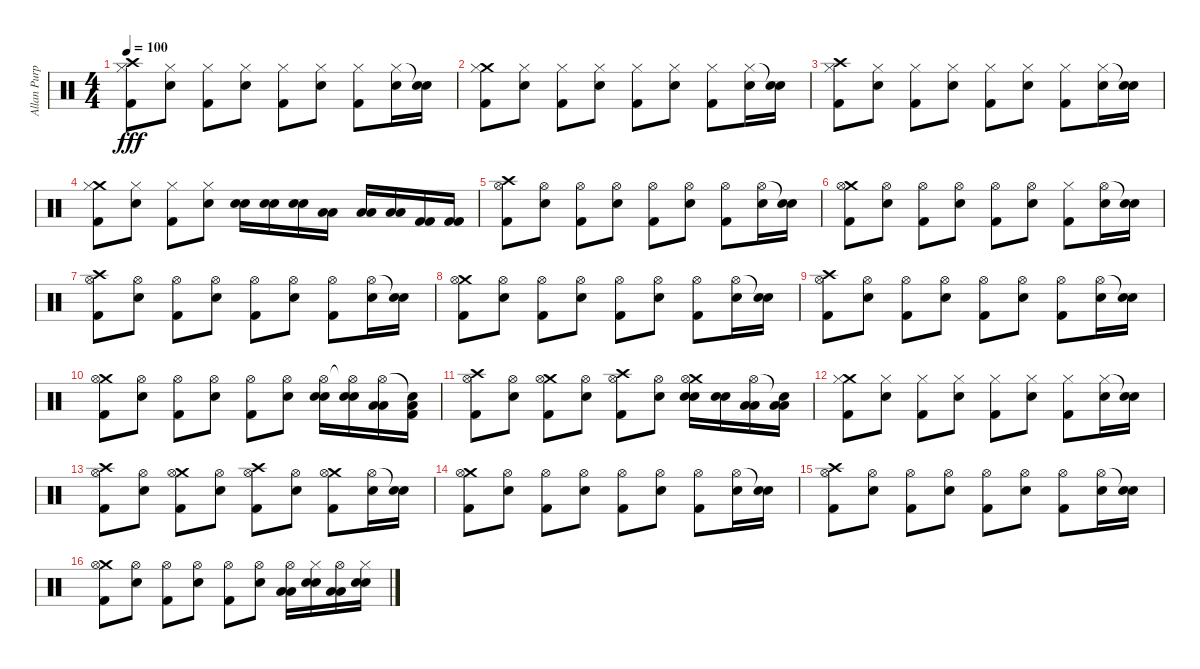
\track ("Allan Purple" "Allan Purp") {instrument percussion}
\staff {score}
\articulation defaults
\ts (4 4)
\tempo 100
\clef neutral
\ks c
("Crash high (hit)" "Hi-Hat (closed)" "Kick (hit) 2").8{dy fff} ("Hi-Hat (closed)" "Electric Snare (hit)").8 ("Hi-Hat (closed)" "Kick (hit) 2").8 ("Hi-Hat (closed)" "Electric Snare (hit)").8 ("Hi-Hat (closed)" "Kick (hit) 2").8 ("Hi-Hat (closed)" "Electric Snare (hit)").8 ("Hi-Hat (closed)" "Kick (hit) 2").8 ("Hi-Hat (closed)" "Electric Snare (hit)").16 ("Snare (hit)"{t} "Electric Snare (hit)").16 |
("Crash medium (hit)" "Hi-Hat (closed)" "Kick (hit) 2").8 ("Hi-Hat (closed)" "Electric Snare (hit)").8 ("Hi-Hat (closed)" "Kick (hit) 2").8 ("Hi-Hat (closed)" "Electric Snare (hit)").8 ("Hi-Hat (closed)" "Kick (hit) 2").8 ("Hi-Hat (closed)" "Electric Snare (hit)").8 ("Hi-Hat (closed)" "Kick (hit) 2").8 ("Hi-Hat (closed)" "Electric Snare (hit)").16 ("Snare (hit)"{t} "Electric Snare (hit)").16 |
("Crash high (hit)" "Hi-Hat (closed)" "Kick (hit) 2").8 ("Hi-Hat (closed)" "Electric Snare (hit)").8 ("Hi-Hat (closed)" "Kick (hit) 2").8 ("Hi-Hat (closed)" "Electric Snare (hit)").8 ("Hi-Hat (closed)" "Kick (hit) 2").8 ("Hi-Hat (closed)" "Electric Snare (hit)").8 ("Hi-Hat (closed)" "Kick (hit) 2").8 ("Hi-Hat (closed)" "Electric Snare (hit)").16 ("Snare (hit)"{t} "Electric Snare (hit)").16 |
("Crash medium (hit)" "Hi-Hat (closed)" "Kick (hit) 2").8 ("Hi-Hat (closed)" "Electric Snare (hit)").8 ("Hi-Hat (closed)" "Kick (hit) 2").8 ("Hi-Hat (closed)" "Electric Snare (hit)").8 ("Electric Snare (hit)" "Electric Snare (hit)").16 ("Electric Snare (hit)" "Electric Snare (hit)").16 ("Electric Snare (hit)" "Electric Snare (hit)").16 ("Low Tom (hit)" "Low Tom (hit)").16 ("Low Tom (hit)" "Low Tom (hit)").16 ("Low Tom (hit)" "Low Tom (hit)").16 ("Kick (hit) 2" "Kick (hit) 2").16 ("Kick (hit) 2" "Kick (hit) 2").16 |
("Crash high (hit)" "Hi-Hat (open)" "Kick (hit) 2").8 ("Hi-Hat (open)" "Electric Snare (hit)").8 ("Hi-Hat (open)" "Kick (hit) 2").8 ("Hi-Hat (open)" "Electric Snare (hit)").8 ("Hi-Hat (open)" "Kick (hit) 2").8 ("Hi-Hat (open)" "Electric Snare (hit)").8 ("Hi-Hat (open)" "Kick (hit) 2").8 ("Hi-Hat (open)" "Electric Snare (hit)").16 ("Snare (hit)"{t} "Electric Snare (hit)").16 |
("Crash medium (hit)" "Hi-Hat (open)" "Kick (hit) 2").8 ("Hi-Hat (open)" "Electric Snare (hit)").8 ("Hi-Hat (open)" "Kick (hit) 2").8 ("Hi-Hat (open)" "Electric Snare (hit)").8 ("Hi-Hat (open)" "Kick (hit) 2").8 ("Hi-Hat (open)" "Electric Snare (hit)").8 ("Hi-Hat (closed)" "Kick (hit) 2").8 ("Hi-Hat (open)" "Electric Snare (hit)").16 ("Snare (hit)"{t} "Electric Snare (hit)").16 |
("Crash high (hit)" "Hi-Hat (open)" "Kick (hit) 2").8 ("Hi-Hat (open)" "Electric Snare (hit)").8 ("Hi-Hat (open)" "Kick (hit) 2").8 ("Hi-Hat (open)" "Electric Snare (hit)").8 ("Hi-Hat (open)" "Kick (hit) 2").8 ("Hi-Hat (open)" "Electric Snare (hit)").8 ("Hi-Hat (open)" "Kick (hit) 2").8 ("Hi-Hat (open)" "Electric Snare (hit)").16 ("Snare (hit)"{t} "Electric Snare (hit)").16 |
("Crash medium (hit)" "Hi-Hat (open)" "Kick (hit) 2").8 ("Hi-Hat (open)" "Electric Snare (hit)").8 ("Hi-Hat (open)" "Kick (hit) 2").8 ("Hi-Hat (open)" "Electric Snare (hit)").8 ("Hi-Hat (open)" "Kick (hit) 2").8 ("Hi-Hat (open)" "Electric Snare (hit)").8 ("Hi-Hat (open)" "Kick (hit) 2").8 ("Hi-Hat (open)" "Electric Snare (hit)").16 ("Snare (hit)"{t} "Electric Snare (hit)").16 |
("Crash high (hit)" "Hi-Hat (open)" "Kick (hit) 2").8 ("Hi-Hat (open)" "Electric Snare (hit)").8 ("Hi-Hat (open)" "Kick (hit) 2").8 ("Hi-Hat (open)" "Electric Snare (hit)").8 ("Hi-Hat (open)" "Kick (hit) 2").8 ("Hi-Hat (open)" "Electric Snare (hit)").8 ("Hi-Hat (open)" "Kick (hit) 2").8 ("Hi-Hat (open)" "Electric Snare (hit)").16 ("Snare (hit)"{t} "Electric Snare (hit)").16 |
("Crash medium (hit)" "Hi-Hat (open)" "Kick (hit) 2").8 ("Hi-Hat (open)" "Electric Snare (hit)").8 ("Hi-Hat (open)" "Kick (hit) 2").8 ("Hi-Hat (open)" "Electric Snare (hit)").8 ("Hi-Hat (open)" "Kick (hit) 2").8 ("Hi-Hat (open)" "Electric Snare (hit)").8 ("Hi-Hat (open)" "Electric Snare (hit)" "Electric Snare (hit)").16 ("Hi-Hat (open)"{t} "Electric Snare (hit)" "Electric Snare (hit)").16 ("Hi-Hat (open)" "Low Tom (hit)" "Low Tom (hit)").16 ("Snare (hit)"{t} "Low Tom (hit)" "Kick (hit) 2").16 |
("Crash high (hit)" "Hi-Hat (open)" "Kick (hit) 2").8 ("Hi-Hat (open)" "Electric Snare (hit)").8 ("Crash medium (hit)" "Hi-Hat (open)" "Kick (hit) 2").8 ("Hi-Hat (open)" "Electric Snare (hit)").8 ("Crash high (hit)" "Hi-Hat (open)" "Kick (hit) 2").8 ("Hi-Hat (open)" "Electric Snare (hit)").8 ("Crash medium (hit)" "Hi-Hat (open)" "Electric Snare (hit)" "Electric Snare (hit)").16 ("Electric Snare (hit)" "Electric Snare (hit)").16 ("Hi-Hat (open)" "Low Tom (hit)" "Low Tom (hit)").16 ("Snare (hit)"{t} "Low Tom (hit)" "Low Tom (hit)").16 |
("Crash medium (hit)" "Hi-Hat (closed)" "Kick (hit) 2").8 ("Hi-Hat (closed)" "Electric Snare (hit)").8 ("Hi-Hat (closed)" "Kick (hit) 2").8 ("Hi-Hat (closed)" "Electric Snare (hit)").8 ("Hi-Hat (closed)" "Kick (hit) 2").8 ("Hi-Hat (closed)" "Electric Snare (hit)").8 ("Hi-Hat (closed)" "Kick (hit) 2").8 ("Hi-Hat (closed)" "Electric Snare (hit)").16 ("Snare (hit)"{t} "Electric Snare (hit)").16 |
("Crash high (hit)" "Hi-Hat (open)" "Kick (hit) 2").8 ("Hi-Hat (open)" "Electric Snare (hit)").8 ("Crash medium (hit)" "Hi-Hat (open)" "Kick (hit) 2").8 ("Hi-Hat (open)" "Electric Snare (hit)").8 ("Crash high (hit)" "Hi-Hat (open)" "Kick (hit) 2").8 ("Hi-Hat (open)" "Electric Snare (hit)").8 ("Crash medium (hit)" "Hi-Hat (open)" "Kick (hit) 2").8 ("Hi-Hat (open)" "Electric Snare (hit)").16 ("Snare (hit)"{t} "Electric Snare (hit)").16 |
("Crash medium (hit)" "Hi-Hat (open)" "Kick (hit) 2").8 ("Hi-Hat (open)" "Electric Snare (hit)").8 ("Hi-Hat (open)" "Kick (hit) 2").8 ("Hi-Hat (open)" "Electric Snare (hit)").8 ("Hi-Hat (open)" "Kick (hit) 2").8 ("Hi-Hat (open)" "Electric Snare (hit)").8 ("Hi-Hat (open)" "Kick (hit) 2").8 ("Hi-Hat (open)" "Electric Snare (hit)").16 ("Snare (hit)"{t} "Electric Snare (hit)").16 |
("Crash high (hit)" "Hi-Hat (open)" "Kick (hit) 2").8 ("Hi-Hat (open)" "Electric Snare (hit)").8 ("Hi-Hat (open)" "Kick (hit) 2").8 ("Hi-Hat (open)" "Electric Snare (hit)").8 ("Hi-Hat (open)" "Kick (hit) 2").8 ("Hi-Hat (open)" "Electric Snare (hit)").8 ("Hi-Hat (open)" "Kick (hit) 2").8 ("Hi-Hat (open)" "Electric Snare (hit)").16 ("Snare (hit)"{t} "Electric Snare (hit)").16 |
("Crash medium (hit)" "Hi-Hat (open)" "Kick (hit) 2").8 ("Hi-Hat (open)" "Electric Snare (hit)").8 ("Hi-Hat (open)" "Kick (hit) 2").8 ("Hi-Hat (open)" "Electric Snare (hit)").8 ("Hi-Hat (open)" "Kick (hit) 2").8 ("Hi-Hat (open)" "Electric Snare (hit)").8 ("Hi-Hat (open)" "Low Tom (hit)" "Low Tom (hit)").16 ("Hi-Hat (closed)" "Electric Snare (hit)" "Electric Snare (hit)").16 ("Hi-Hat (open)" "Low Tom (hit)" "Low Tom (hit)").16 ("Hi-Hat (closed)" "Electric Snare (hit)" "Electric Snare (hit)").16
